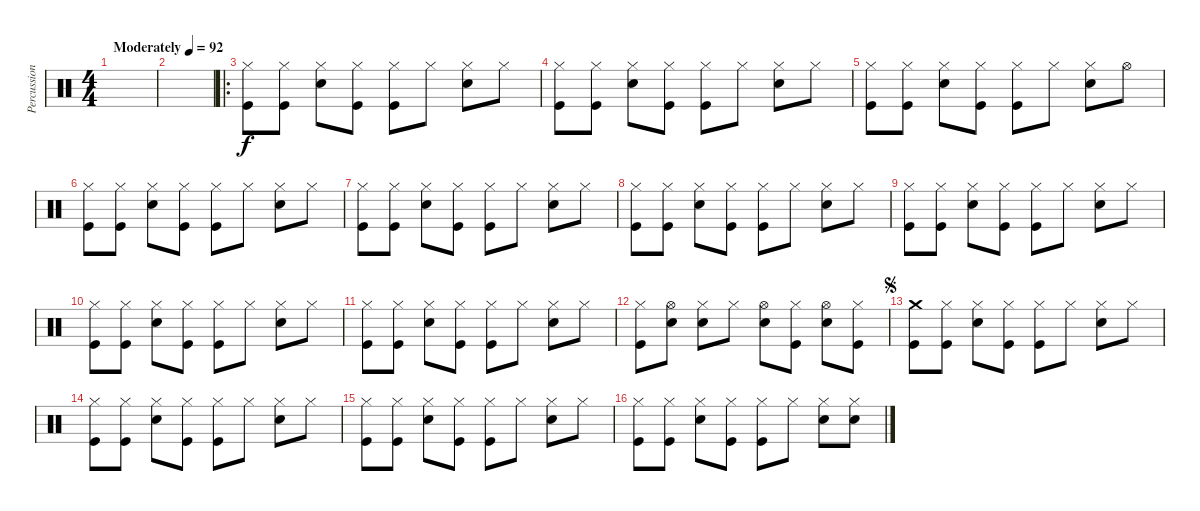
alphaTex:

\track ("Percussion" "Percussion") {instrument percussion}
\staff {score}
\articulation defaults
\ts (4 4)
\tempo (92 "Moderately")
\clef neutral
\ks c
|
|
\ro
("Hi-Hat (closed)" "Kick (hit)").8 ("Hi-Hat (closed)" "Kick (hit)").8 ("Hi-Hat (closed)" "Snare (hit) 2").8 ("Hi-Hat (closed)" "Kick (hit)").8 ("Hi-Hat (closed)" "Kick (hit)").8 "Hi-Hat (closed)".8 ("Hi-Hat (closed)" "Snare (hit) 2").8 "Hi-Hat (closed)".8 |
("Hi-Hat (closed)" "Kick (hit)").8 ("Hi-Hat (closed)" "Kick (hit)").8 ("Hi-Hat (closed)" "Snare (hit) 2").8 ("Hi-Hat (closed)" "Kick (hit)").8 ("Hi-Hat (closed)" "Kick (hit)").8 "Hi-Hat (closed)".8 ("Hi-Hat (closed)" "Snare (hit) 2").8 "Hi-Hat (closed)".8 |
("Hi-Hat (closed)" "Kick (hit)").8 ("Hi-Hat (closed)" "Kick (hit)").8 ("Hi-Hat (closed)" "Snare (hit) 2").8 ("Hi-Hat (closed)" "Kick (hit)").8 ("Hi-Hat (closed)" "Kick (hit)").8 "Hi-Hat (closed)".8 ("Hi-Hat (closed)" "Snare (hit) 2").8 "Hi-Hat (open)".8 |
("Hi-Hat (closed)" "Kick (hit)").8 ("Hi-Hat (closed)" "Kick (hit)").8 ("Hi-Hat (closed)" "Snare (hit) 2").8 ("Hi-Hat (closed)" "Kick (hit)").8 ("Hi-Hat (closed)" "Kick (hit)").8 "Hi-Hat (closed)".8 ("Hi-Hat (closed)" "Snare (hit) 2").8 "Hi-Hat (closed)".8 |
("Hi-Hat (closed)" "Kick (hit)").8 ("Hi-Hat (closed)" "Kick (hit)").8 ("Hi-Hat (closed)" "Snare (hit) 2").8 ("Hi-Hat (closed)" "Kick (hit)").8 ("Hi-Hat (closed)" "Kick (hit)").8 "Hi-Hat (closed)".8 ("Hi-Hat (closed)" "Snare (hit) 2").8 "Hi-Hat (closed)".8 |
("Hi-Hat (closed)" "Kick (hit)").8 ("Hi-Hat (closed)" "Kick (hit)").8 ("Hi-Hat (closed)" "Snare (hit) 2").8 ("Hi-Hat (closed)" "Kick (hit)").8 ("Hi-Hat (closed)" "Kick (hit)").8 "Hi-Hat (closed)".8 ("Hi-Hat (closed)" "Snare (hit) 2").8 "Hi-Hat (closed)".8 |
("Hi-Hat (closed)" "Kick (hit)").8 ("Hi-Hat (closed)" "Kick (hit)").8 ("Hi-Hat (closed)" "Snare (hit) 2").8 ("Hi-Hat (closed)" "Kick (hit)").8 ("Hi-Hat (closed)" "Kick (hit)").8 "Hi-Hat (closed)".8 ("Hi-Hat (closed)" "Snare (hit) 2").8 "Hi-Hat (closed)".8 |
("Hi-Hat (closed)" "Kick (hit)").8 ("Hi-Hat (closed)" "Kick (hit)").8 ("Hi-Hat (closed)" "Snare (hit) 2").8 ("Hi-Hat (closed)" "Kick (hit)").8 ("Hi-Hat (closed)" "Kick (hit)").8 "Hi-Hat (closed)".8 ("Hi-Hat (closed)" "Snare (hit) 2").8 "Hi-Hat (closed)".8 |
("Hi-Hat (closed)" "Kick (hit)").8 ("Hi-Hat (closed)" "Kick (hit)").8 ("Hi-Hat (closed)" "Snare (hit) 2").8 ("Hi-Hat (closed)" "Kick (hit)").8 ("Hi-Hat (closed)" "Kick (hit)").8 "Hi-Hat (closed)".8 ("Hi-Hat (closed)" "Snare (hit) 2").8 "Hi-Hat (closed)".8 |
("Hi-Hat (closed)" "Kick (hit)").8 ("Hi-Hat (open)" "Snare (hit) 2").8 ("Hi-Hat (closed)" "Snare (hit) 2").8 "Hi-Hat (closed)".8 ("Hi-Hat (open)" "Snare (hit) 2").8 ("Hi-Hat (closed)" "Kick (hit)").8 ("Hi-Hat (open)" "Snare (hit) 2").8 ("Hi-Hat (closed)" "Kick (hit)").8 |
\jump segno
("Crash medium (hit)" "Kick (hit)").8 ("Hi-Hat (closed)" "Kick (hit)").8 ("Hi-Hat (closed)" "Snare (hit) 2").8 ("Hi-Hat (closed)" "Kick (hit)").8 ("Hi-Hat (closed)" "Kick (hit)").8 "Hi-Hat (closed)".8 ("Hi-Hat (closed)" "Snare (hit) 2").8 "Hi-Hat (closed)".8 |
("Hi-Hat (closed)" "Kick (hit)").8 ("Hi-Hat (closed)" "Kick (hit)").8 ("Hi-Hat (closed)" "Snare (hit) 2").8 ("Hi-Hat (closed)" "Kick (hit)").8 ("Hi-Hat (closed)" "Kick (hit)").8 "Hi-Hat (closed)".8 ("Hi-Hat (closed)" "Snare (hit) 2").8 "Hi-Hat (closed)".8 |
("Hi-Hat (closed)" "Kick (hit)").8 ("Hi-Hat (closed)" "Kick (hit)").8 ("Hi-Hat (closed)" "Snare (hit) 2").8 ("Hi-Hat (closed)" "Kick (hit)").8 ("Hi-Hat (closed)" "Kick (hit)").8 "Hi-Hat (closed)".8 ("Hi-Hat (closed)" "Snare (hit) 2").8 "Hi-Hat (closed)".8 |
("Hi-Hat (closed)" "Kick (hit)").8 ("Hi-Hat (closed)" "Kick (hit)").8 ("Hi-Hat (closed)" "Snare (hit) 2").8 ("Hi-Hat (closed)" "Kick (hit)").8 ("Hi-Hat (closed)" "Kick (hit)").8 "Hi-Hat (closed)".8 ("Hi-Hat (closed)" "Snare (hit) 2").8 ("Hi-Hat (closed)" "Snare (hit) 2").8
